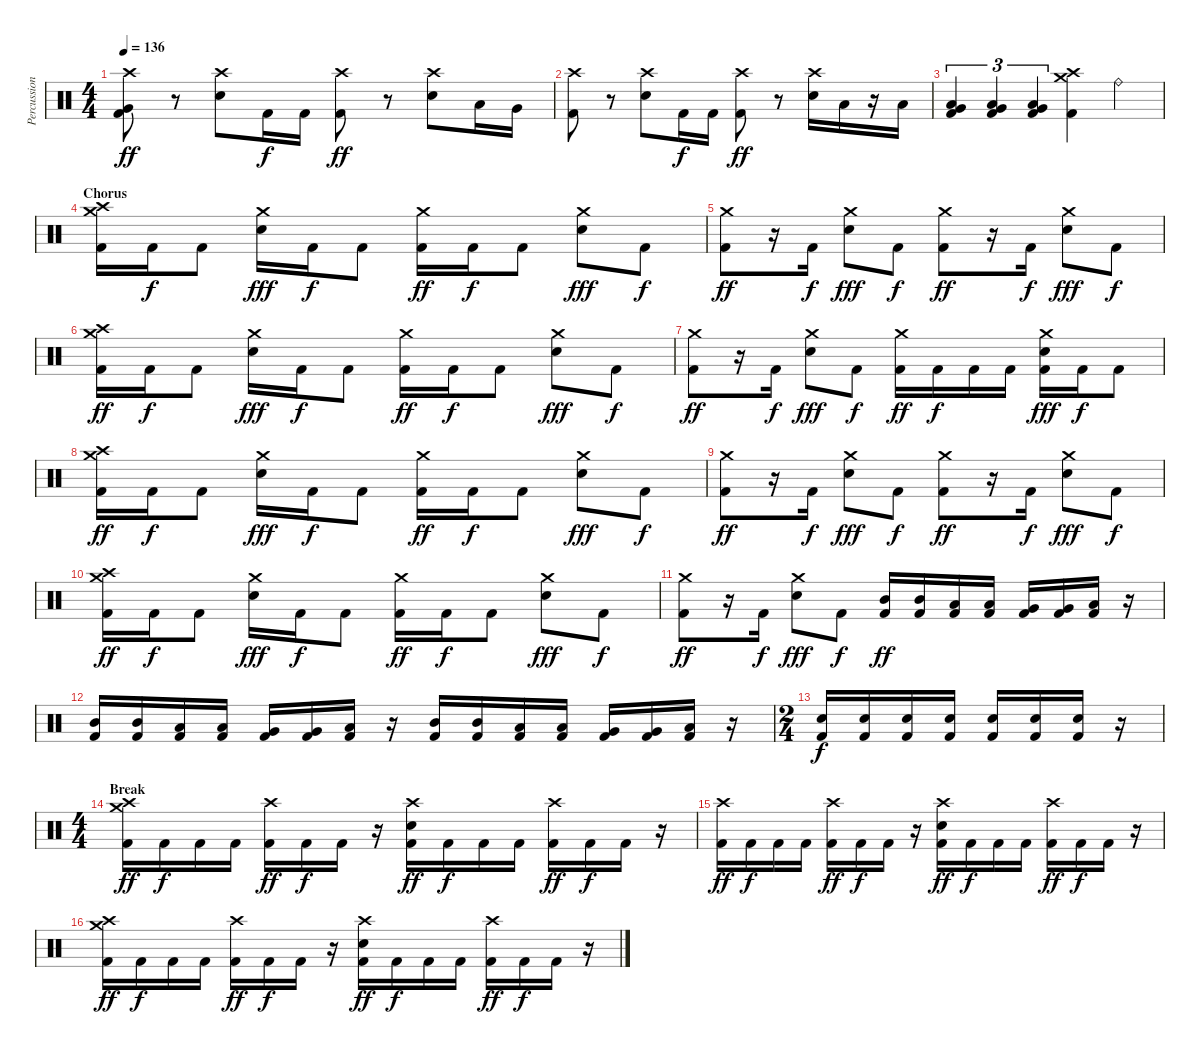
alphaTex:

\track ("Percussions" "Percussion") {instrument percussion}
\staff {score}
\articulation defaults
\ts (4 4)
\tempo 136
\clef neutral
\ks c
("Crash high (hit)" "Very Low Tom (hit)" "Kick (hit) 2").8{dy ff} r.8 ("Crash high (hit)" "Electric Snare (hit)").8 "Kick (hit) 2".16{dy f} "Kick (hit) 2".16 ("Crash high (hit)" "Kick (hit) 2").8{dy ff} r.8 ("Crash high (hit)" "Electric Snare (hit)").8 "Low Tom (hit)".16 "Very Low Tom (hit)".16 |
("Crash high (hit)" "Kick (hit) 2").8 r.8 ("Crash high (hit)" "Electric Snare (hit)").8 "Kick (hit) 2".16{dy f} "Kick (hit) 2".16 ("Crash high (hit)" "Kick (hit) 2").8{dy ff} r.8 ("Crash high (hit)" "Electric Snare (hit)").16 "Low Tom (hit)".16 r.16 "Low Tom (hit)".16 |
("Very Low Tom (hit)" "Low Floor Tom (hit)" "Kick (hit) 2").4{tu (3 2)} ("Very Low Tom (hit)" "Low Floor Tom (hit)" "Kick (hit) 2").4{tu (3 2)} ("Very Low Tom (hit)" "Low Floor Tom (hit)" "Kick (hit) 2").4{tu (3 2)} ("Crash medium (hit)" "Crash high (hit)" "Kick (hit) 2").4 "Ride (bell)".4 |
\section ("" "Chorus")
("Crash high (hit)" "Crash medium (hit)" "Kick (hit) 2").16 "Kick (hit) 2".16{dy f} "Kick (hit) 2".8 ("Crash medium (hit)" "Electric Snare (hit)").16{dy fff} "Kick (hit) 2".16{dy f} "Kick (hit) 2".8 ("Crash medium (hit)" "Kick (hit) 2").16{dy ff} "Kick (hit) 2".16{dy f} "Kick (hit) 2".8 ("Crash medium (hit)" "Electric Snare (hit)").8{dy fff} "Kick (hit) 2".8{dy f} |
("Crash medium (hit)" "Kick (hit) 2").8{dy ff} r.16 "Kick (hit) 2".16{dy f} ("Crash medium (hit)" "Electric Snare (hit)").8{dy fff} "Kick (hit) 2".8{dy f} ("Crash medium (hit)" "Kick (hit) 2").8{dy ff} r.16 "Kick (hit) 2".16{dy f} ("Crash medium (hit)" "Electric Snare (hit)").8{dy fff} "Kick (hit) 2".8{dy f} |
("Crash high (hit)" "Crash medium (hit)" "Kick (hit) 2").16{dy ff} "Kick (hit) 2".16{dy f} "Kick (hit) 2".8 ("Crash medium (hit)" "Electric Snare (hit)").16{dy fff} "Kick (hit) 2".16{dy f} "Kick (hit) 2".8 ("Crash medium (hit)" "Kick (hit) 2").16{dy ff} "Kick (hit) 2".16{dy f} "Kick (hit) 2".8 ("Crash medium (hit)" "Electric Snare (hit)").8{dy fff} "Kick (hit) 2".8{dy f} |
("Crash medium (hit)" "Kick (hit) 2").8{dy ff} r.16 "Kick (hit) 2".16{dy f} ("Crash medium (hit)" "Electric Snare (hit)").8{dy fff} "Kick (hit) 2".8{dy f} ("Crash medium (hit)" "Kick (hit) 2").16{dy ff} "Kick (hit) 2".16{dy f} "Kick (hit) 2".16 "Kick (hit) 2".16 ("Crash medium (hit)" "Electric Snare (hit)" "Kick (hit) 2").16{dy fff} "Kick (hit) 2".16{dy f} "Kick (hit) 2".8 |
("Crash high (hit)" "Crash medium (hit)" "Kick (hit) 2").16{dy ff} "Kick (hit) 2".16{dy f} "Kick (hit) 2".8 ("Crash medium (hit)" "Electric Snare (hit)").16{dy fff} "Kick (hit) 2".16{dy f} "Kick (hit) 2".8 ("Crash medium (hit)" "Kick (hit) 2").16{dy ff} "Kick (hit) 2".16{dy f} "Kick (hit) 2".8 ("Crash medium (hit)" "Electric Snare (hit)").8{dy fff} "Kick (hit) 2".8{dy f} |
("Crash medium (hit)" "Kick (hit) 2").8{dy ff} r.16 "Kick (hit) 2".16{dy f} ("Crash medium (hit)" "Electric Snare (hit)").8{dy fff} "Kick (hit) 2".8{dy f} ("Crash medium (hit)" "Kick (hit) 2").8{dy ff} r.16 "Kick (hit) 2".16{dy f} ("Crash medium (hit)" "Electric Snare (hit)").8{dy fff} "Kick (hit) 2".8{dy f} |
("Crash high (hit)" "Crash medium (hit)" "Kick (hit) 2").16{dy ff} "Kick (hit) 2".16{dy f} "Kick (hit) 2".8 ("Crash medium (hit)" "Electric Snare (hit)").16{dy fff} "Kick (hit) 2".16{dy f} "Kick (hit) 2".8 ("Crash medium (hit)" "Kick (hit) 2").16{dy ff} "Kick (hit) 2".16{dy f} "Kick (hit) 2".8 ("Crash medium (hit)" "Electric Snare (hit)").8{dy fff} "Kick (hit) 2".8{dy f} |
("Crash medium (hit)" "Kick (hit) 2").8{dy ff} r.16 "Kick (hit) 2".16{dy f} ("Crash medium (hit)" "Electric Snare (hit)").8{dy fff} "Kick (hit) 2".8{dy f} ("Mid Tom (hit)" "Kick (hit) 2").16{dy ff} ("Mid Tom (hit)" "Kick (hit) 2").16 ("Low Tom (hit)" "Kick (hit) 2").16 ("Low Tom (hit)" "Kick (hit) 2").16 ("Very Low Tom (hit)" "Kick (hit) 2").16 ("Very Low Tom (hit)" "Kick (hit) 2").16 ("Low Floor Tom (hit)" "Kick (hit) 2").16 r.16 |
("Mid Tom (hit)" "Kick (hit) 2").16 ("Mid Tom (hit)" "Kick (hit) 2").16 ("Low Tom (hit)" "Kick (hit) 2").16 ("Low Tom (hit)" "Kick (hit) 2").16 ("Very Low Tom (hit)" "Kick (hit) 2").16 ("Very Low Tom (hit)" "Kick (hit) 2").16 ("Low Floor Tom (hit)" "Kick (hit) 2").16 r.16 ("Mid Tom (hit)" "Kick (hit) 2").16 ("Mid Tom (hit)" "Kick (hit) 2").16 ("Low Tom (hit)" "Kick (hit) 2").16 ("Low Tom (hit)" "Kick (hit) 2").16 ("Very Low Tom (hit)" "Kick (hit) 2").16 ("Very Low Tom (hit)" "Kick (hit) 2").16 ("Low Floor Tom (hit)" "Kick (hit) 2").16 r.16 |
\ts (2 4)
("Electric Snare (hit)" "Kick (hit) 2").16{dy f} ("Electric Snare (hit)" "Kick (hit) 2").16 ("Electric Snare (hit)" "Kick (hit) 2").16 ("Electric Snare (hit)" "Kick (hit) 2").16 ("Electric Snare (hit)" "Kick (hit) 2").16 ("Electric Snare (hit)" "Kick (hit) 2").16 ("Electric Snare (hit)" "Kick (hit) 2").16 r.16 |
\ts (4 4)
\section ("" "Break")
("Crash medium (hit)" "Crash high (hit)" "Kick (hit) 2").16{dy ff} "Kick (hit) 2".16{dy f} "Kick (hit) 2".16 "Kick (hit) 2".16 ("Crash high (hit)" "Kick (hit) 2").16{dy ff} "Kick (hit) 2".16{dy f} "Kick (hit) 2".16 r.16 ("Crash high (hit)" "Electric Snare (hit)" "Kick (hit) 2").16{dy ff} "Kick (hit) 2".16{dy f} "Kick (hit) 2".16 "Kick (hit) 2".16 ("Crash high (hit)" "Kick (hit) 2").16{dy ff} "Kick (hit) 2".16{dy f} "Kick (hit) 2".16 r.16 |
("Crash high (hit)" "Kick (hit) 2").16{dy ff} "Kick (hit) 2".16{dy f} "Kick (hit) 2".16 "Kick (hit) 2".16 ("Crash high (hit)" "Kick (hit) 2").16{dy ff} "Kick (hit) 2".16{dy f} "Kick (hit) 2".16 r.16 ("Crash high (hit)" "Electric Snare (hit)" "Kick (hit) 2").16{dy ff} "Kick (hit) 2".16{dy f} "Kick (hit) 2".16 "Kick (hit) 2".16 ("Crash high (hit)" "Kick (hit) 2").16{dy ff} "Kick (hit) 2".16{dy f} "Kick (hit) 2".16 r.16 |
("Crash medium (hit)" "Crash high (hit)" "Kick (hit) 2").16{dy ff} "Kick (hit) 2".16{dy f} "Kick (hit) 2".16 "Kick (hit) 2".16 ("Crash high (hit)" "Kick (hit) 2").16{dy ff} "Kick (hit) 2".16{dy f} "Kick (hit) 2".16 r.16 ("Crash high (hit)" "Electric Snare (hit)" "Kick (hit) 2").16{dy ff} "Kick (hit) 2".16{dy f} "Kick (hit) 2".16 "Kick (hit) 2".16 ("Crash high (hit)" "Kick (hit) 2").16{dy ff} "Kick (hit) 2".16{dy f} "Kick (hit) 2".16 r.16
